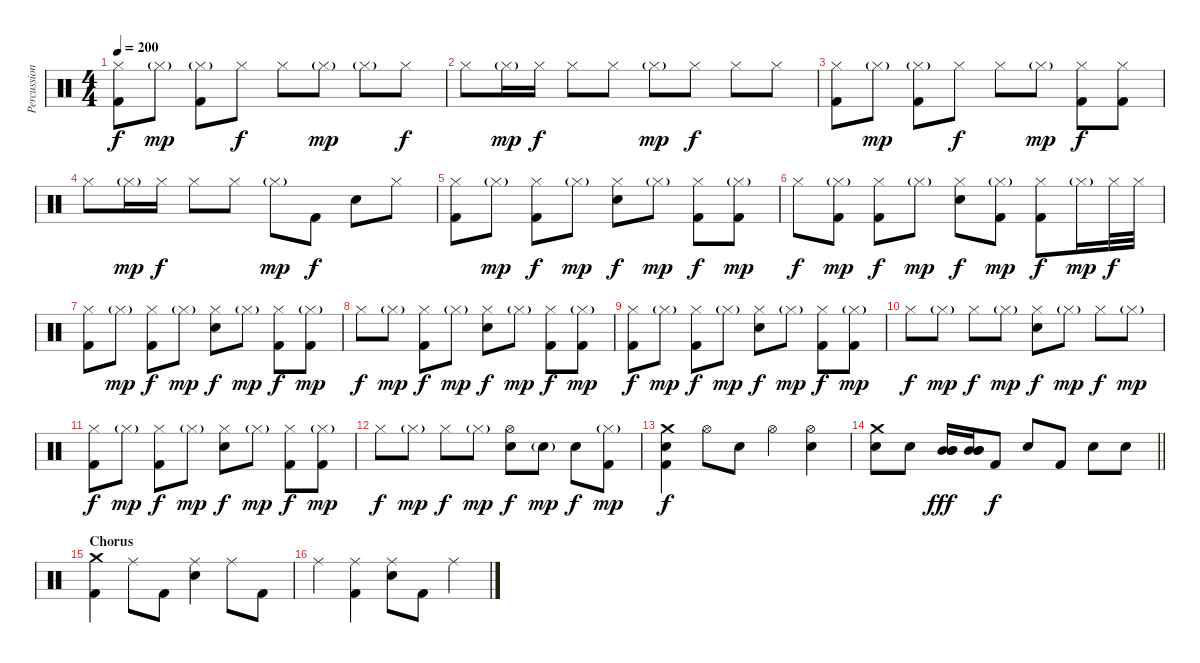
\track ("Percussion" "Percussion") {instrument percussion}
\staff {score}
\articulation defaults
\ts (4 4)
\tempo 200
\clef neutral
\ks c
("Hi-Hat (closed)" "Kick (hit) 2").8{dy f} "Hi-Hat (closed)"{g}.8{dy mp} ("Hi-Hat (closed)"{g} "Kick (hit) 2").8 "Hi-Hat (closed)".8{dy f} "Hi-Hat (closed)".8 "Hi-Hat (closed)"{g}.8{dy mp} "Hi-Hat (closed)"{g}.8 "Hi-Hat (closed)".8{dy f} |
"Hi-Hat (closed)".8 "Hi-Hat (closed)"{g}.16{dy mp} "Hi-Hat (closed)".16{dy f} "Hi-Hat (closed)".8 "Hi-Hat (closed)".8 "Hi-Hat (closed)"{g}.8{dy mp} "Hi-Hat (closed)".8{dy f} "Hi-Hat (closed)".8 "Hi-Hat (closed)".8 |
("Hi-Hat (closed)" "Kick (hit) 2").8 "Hi-Hat (closed)"{g}.8{dy mp} ("Hi-Hat (closed)"{g} "Kick (hit) 2").8 "Hi-Hat (closed)".8{dy f} "Hi-Hat (closed)".8 "Hi-Hat (closed)"{g}.8{dy mp} ("Hi-Hat (closed)" "Kick (hit) 2").8{dy f} ("Hi-Hat (closed)" "Kick (hit) 2").8 |
"Hi-Hat (closed)".8 "Hi-Hat (closed)"{g}.16{dy mp} "Hi-Hat (closed)".16{dy f} "Hi-Hat (closed)".8 "Hi-Hat (closed)".8 "Hi-Hat (closed)"{g}.8{dy mp} "Kick (hit) 2".8{dy f} "Electric Snare (hit)".8 "Hi-Hat (closed)".8 |
("Hi-Hat (closed)" "Kick (hit) 2").8 "Hi-Hat (closed)"{g}.8{dy mp} ("Hi-Hat (closed)" "Kick (hit) 2").8{dy f} "Hi-Hat (closed)"{g}.8{dy mp} ("Hi-Hat (closed)" "Electric Snare (hit)").8{dy f} "Hi-Hat (closed)"{g}.8{dy mp} ("Hi-Hat (closed)" "Kick (hit) 2").8{dy f} ("Hi-Hat (closed)"{g} "Kick (hit) 2").8{dy mp} |
"Hi-Hat (closed)".8{dy f} ("Hi-Hat (closed)"{g} "Kick (hit) 2").8{dy mp} ("Hi-Hat (closed)" "Kick (hit) 2").8{dy f} "Hi-Hat (closed)"{g}.8{dy mp} ("Hi-Hat (closed)" "Electric Snare (hit)").8{dy f} ("Hi-Hat (closed)"{g} "Kick (hit) 2").8{dy mp} ("Hi-Hat (closed)" "Kick (hit) 2").8{dy f} "Hi-Hat (closed)"{g}.16{dy mp} "Hi-Hat (closed)".32{dy f} "Hi-Hat (closed)".32 |
("Hi-Hat (closed)" "Kick (hit) 2").8 "Hi-Hat (closed)"{g}.8{dy mp} ("Hi-Hat (closed)" "Kick (hit) 2").8{dy f} "Hi-Hat (closed)"{g}.8{dy mp} ("Hi-Hat (closed)" "Electric Snare (hit)").8{dy f} "Hi-Hat (closed)"{g}.8{dy mp} ("Hi-Hat (closed)" "Kick (hit) 2").8{dy f} ("Hi-Hat (closed)"{g} "Kick (hit) 2").8{dy mp} |
"Hi-Hat (closed)".8{dy f} "Hi-Hat (closed)"{g}.8{dy mp} ("Hi-Hat (closed)" "Kick (hit) 2").8{dy f} "Hi-Hat (closed)"{g}.8{dy mp} ("Hi-Hat (closed)" "Electric Snare (hit)").8{dy f} "Hi-Hat (closed)"{g}.8{dy mp} ("Hi-Hat (closed)" "Kick (hit) 2").8{dy f} ("Hi-Hat (closed)"{g} "Kick (hit) 2").8{dy mp} |
("Hi-Hat (closed)" "Kick (hit) 2").8{dy f} "Hi-Hat (closed)"{g}.8{dy mp} ("Hi-Hat (closed)" "Kick (hit) 2").8{dy f} "Hi-Hat (closed)"{g}.8{dy mp} ("Hi-Hat (closed)" "Electric Snare (hit)").8{dy f} "Hi-Hat (closed)"{g}.8{dy mp} ("Hi-Hat (closed)" "Kick (hit) 2").8{dy f} ("Hi-Hat (closed)"{g} "Kick (hit) 2").8{dy mp} |
"Hi-Hat (closed)".8{dy f} "Hi-Hat (closed)"{g}.8{dy mp} "Hi-Hat (closed)".8{dy f} "Hi-Hat (closed)"{g}.8{dy mp} ("Hi-Hat (closed)" "Electric Snare (hit)").8{dy f} "Hi-Hat (closed)"{g}.8{dy mp} "Hi-Hat (closed)".8{dy f} "Hi-Hat (closed)"{g}.8{dy mp} |
("Hi-Hat (closed)" "Kick (hit) 2").8{dy f} "Hi-Hat (closed)"{g}.8{dy mp} ("Hi-Hat (closed)" "Kick (hit) 2").8{dy f} "Hi-Hat (closed)"{g}.8{dy mp} ("Hi-Hat (closed)" "Electric Snare (hit)").8{dy f} "Hi-Hat (closed)"{g}.8{dy mp} ("Hi-Hat (closed)" "Kick (hit) 2").8{dy f} ("Hi-Hat (closed)"{g} "Kick (hit) 2").8{dy mp} |
"Hi-Hat (closed)".8{dy f} "Hi-Hat (closed)"{g}.8{dy mp} "Hi-Hat (closed)".8{dy f} "Hi-Hat (closed)"{g}.8{dy mp} ("Hi-Hat (open)" "Electric Snare (hit)").8{dy f} "Snare (hit)"{g}.8{dy mp} "Snare (hit)".8{dy f} ("Hi-Hat (closed)"{g} "Kick (hit) 2").8{dy mp} |
("Crash medium (hit)" "Electric Snare (hit)" "Kick (hit) 2").4{dy f} "Hi-Hat (open)".8 "Electric Snare (hit)".8 "Hi-Hat (open)".4 ("Hi-Hat (open)" "Electric Snare (hit)").4 |
\barLineRight lightlight
("Crash medium (hit)" "Electric Snare (hit)").8 "Electric Snare (hit)".8 ("Mid Tom (hit)" "Mid Tom (hit)" "Mid Tom (hit)").16{dy fff balance 15} ("Mid Tom (hit)" "Mid Tom (hit)" "Mid Tom (hit)").16 "Kick (hit) 2".8{dy f balance 8} "Electric Snare (hit)".8 "Kick (hit) 2".8 "Electric Snare (hit)".8 "Electric Snare (hit)".8 |
\section ("" "Chorus")
("Crash medium (hit)" "Kick (hit) 2").4 "Ride (middle)".8 "Kick (hit) 2".8 ("Ride (middle)" "Electric Snare (hit)").4 "Ride (middle)".8 "Kick (hit) 2".8 |
"Ride (middle)".4 ("Ride (middle)" "Kick (hit) 2").4 ("Ride (middle)" "Electric Snare (hit)").8 "Kick (hit) 2".8 "Ride (middle)".4
